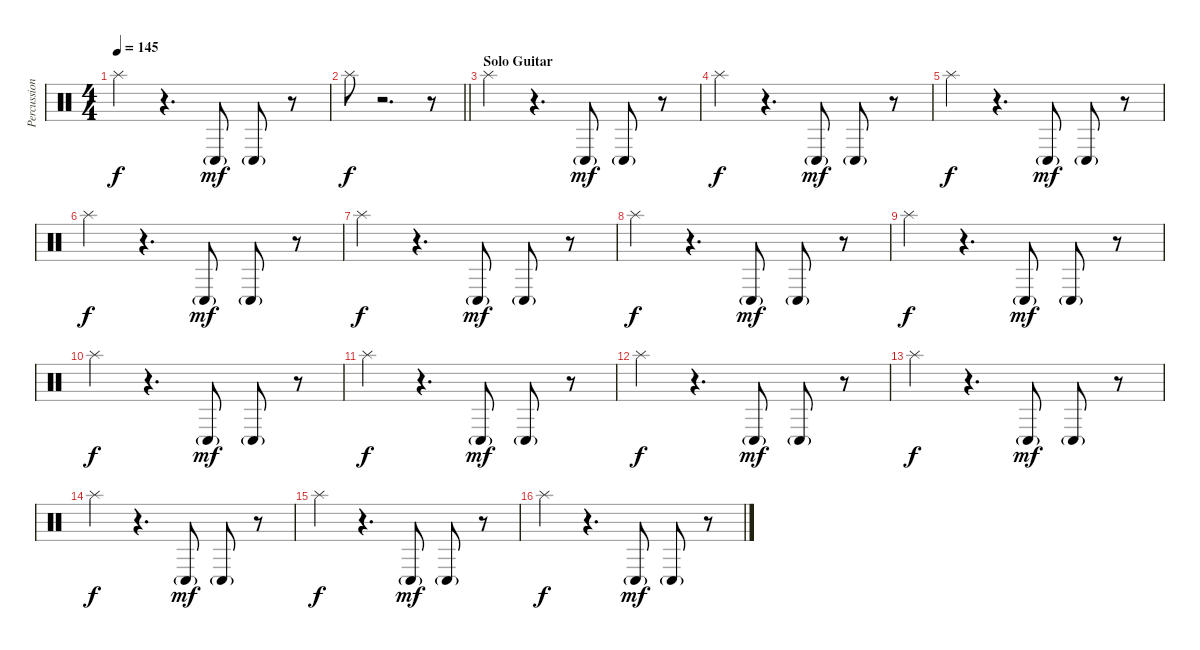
\track ("Percussion 2" "Percussion") {instrument percussion}
\staff {score}
\articulation defaults
\ts (4 4)
\tempo 145
\clef neutral
\ks c "Splash (hit)".4{dy f}
r.4{d} "Conga low (hit)"{g}.8{dy mf} "Conga low (hit)"{g}.8 r.8 |
\barLineRight lightlight "Splash (hit)".8{dy f}
r.2{d} r.8 |
\section ("" "Solo Guitar")
"Splash (hit)".4 r.4{d} "Conga low (hit)"{g}.8{dy mf} "Conga low (hit)"{g}.8 r.8 |
"Splash (hit)".4{dy f} r.4{d} "Conga low (hit)"{g}.8{dy mf} "Conga low (hit)"{g}.8 r.8 |
"Splash (hit)".4{dy f} r.4{d} "Conga low (hit)"{g}.8{dy mf} "Conga low (hit)"{g}.8 r.8 |
"Splash (hit)".4{dy f} r.4{d} "Conga low (hit)"{g}.8{dy mf} "Conga low (hit)"{g}.8 r.8 |
"Splash (hit)".4{dy f} r.4{d} "Conga low (hit)"{g}.8{dy mf} "Conga low (hit)"{g}.8 r.8 |
"Splash (hit)".4{dy f} r.4{d} "Conga low (hit)"{g}.8{dy mf} "Conga low (hit)"{g}.8 r.8 |
"Splash (hit)".4{dy f} r.4{d} "Conga low (hit)"{g}.8{dy mf} "Conga low (hit)"{g}.8 r.8 |
"Splash (hit)".4{dy f} r.4{d} "Conga low (hit)"{g}.8{dy mf} "Conga low (hit)"{g}.8 r.8 |
"Splash (hit)".4{dy f} r.4{d} "Conga low (hit)"{g}.8{dy mf} "Conga low (hit)"{g}.8 r.8 |
"Splash (hit)".4{dy f} r.4{d} "Conga low (hit)"{g}.8{dy mf} "Conga low (hit)"{g}.8 r.8 |
"Splash (hit)".4{dy f} r.4{d} "Conga low (hit)"{g}.8{dy mf} "Conga low (hit)"{g}.8 r.8 |
"Splash (hit)".4{dy f} r.4{d} "Conga low (hit)"{g}.8{dy mf} "Conga low (hit)"{g}.8 r.8 |
"Splash (hit)".4{dy f} r.4{d} "Conga low (hit)"{g}.8{dy mf} "Conga low (hit)"{g}.8 r.8 |
"Splash (hit)".4{dy f} r.4{d} "Conga low (hit)"{g}.8{dy mf} "Conga low (hit)"{g}.8 r.8
